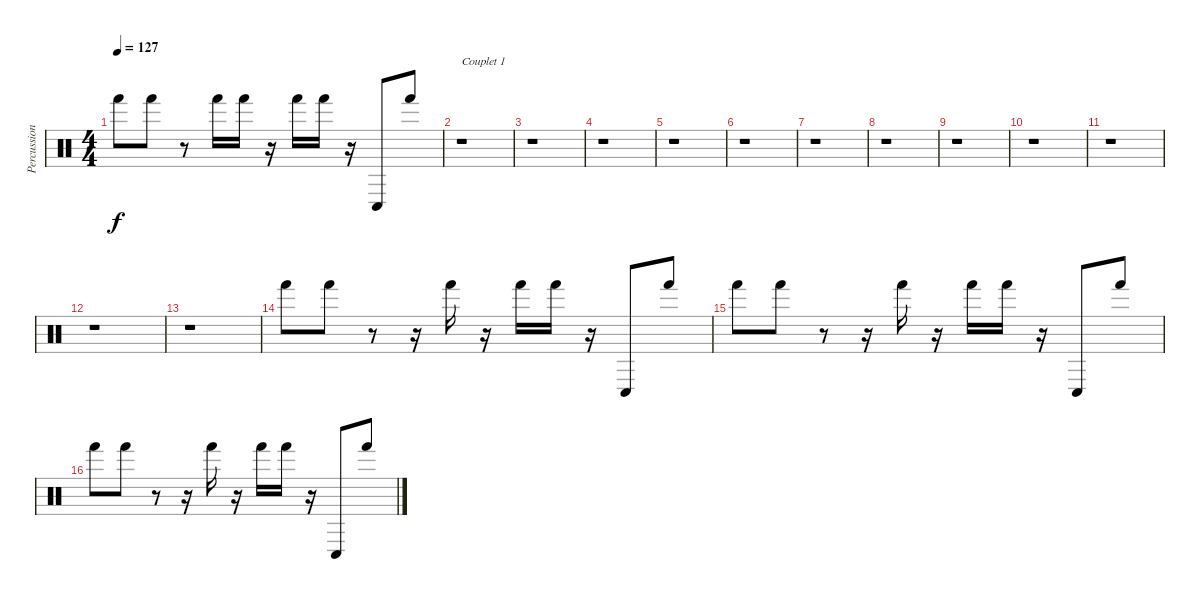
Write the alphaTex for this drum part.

\track ("Percussions" "Percussion") {instrument percussion}
\staff {score}
\articulation defaults
\ts (4 4)
\tempo 127
\clef neutral
\ks c "Hand (hit)".8{dy f} "Hand (hit)".8
r.8 "Hand (hit)".16 "Hand (hit)".16 r.16 "Hand (hit)".16 "Hand (hit)".16 r.16 "Conga low (hit)".8 "Hand (hit)".8 |
r.1{txt "Couplet 1"} |
r.1 |
r.1 |
r.1 |
r.1 |
r.1 |
r.1 |
r.1 |
r.1 |
r.1 |
r.1 |
r.1 |
"Hand (hit)".8 "Hand (hit)".8 r.8 r.16 "Hand (hit)".16 r.16 "Hand (hit)".16 "Hand (hit)".16 r.16 "Conga low (hit)".8 "Hand (hit)".8 |
"Hand (hit)".8 "Hand (hit)".8 r.8 r.16 "Hand (hit)".16 r.16 "Hand (hit)".16 "Hand (hit)".16 r.16 "Conga low (hit)".8 "Hand (hit)".8 |
"Hand (hit)".8 "Hand (hit)".8 r.8 r.16 "Hand (hit)".16 r.16 "Hand (hit)".16 "Hand (hit)".16 r.16 "Conga low (hit)".8 "Hand (hit)".8
